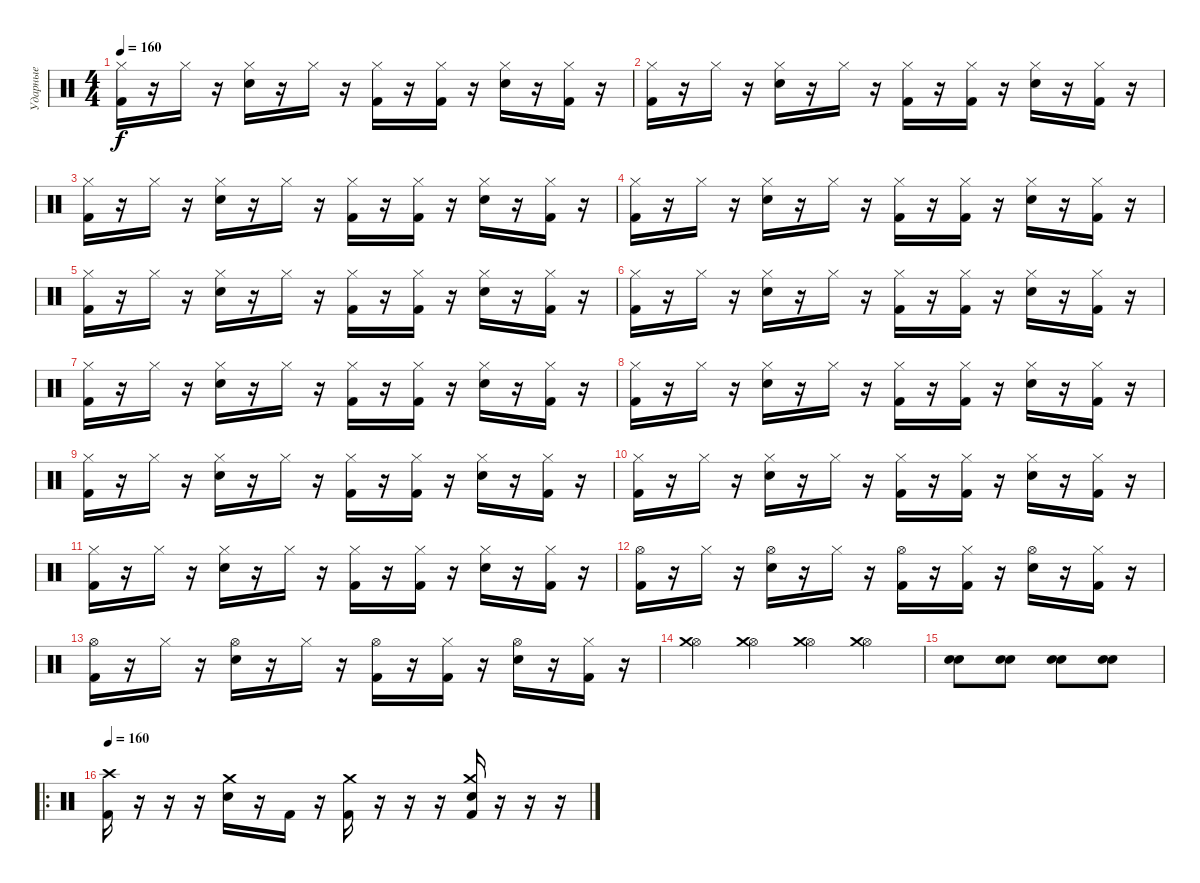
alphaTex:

\track ("Ударные" "Ударные") {instrument percussion}
\staff {score}
\articulation defaults
\ts (4 4)
\tempo 160
\clef neutral
\ks c
("Hi-Hat (closed)" "Kick (hit) 2").16{dy f} r.16 "Hi-Hat (closed)".16 r.16 ("Hi-Hat (closed)" "Snare (hit) 2").16 r.16 "Hi-Hat (closed)".16 r.16 ("Hi-Hat (closed)" "Kick (hit) 2").16 r.16 ("Hi-Hat (closed)" "Kick (hit) 2").16 r.16 ("Hi-Hat (closed)" "Snare (hit) 2").16 r.16 ("Hi-Hat (closed)" "Kick (hit) 2").16 r.16 |
("Hi-Hat (closed)" "Kick (hit) 2").16 r.16 "Hi-Hat (closed)".16 r.16 ("Hi-Hat (closed)" "Snare (hit) 2").16 r.16 "Hi-Hat (closed)".16 r.16 ("Hi-Hat (closed)" "Kick (hit) 2").16 r.16 ("Hi-Hat (closed)" "Kick (hit) 2").16 r.16 ("Hi-Hat (closed)" "Snare (hit) 2").16 r.16 ("Hi-Hat (closed)" "Kick (hit) 2").16 r.16 |
("Hi-Hat (closed)" "Kick (hit) 2").16 r.16 "Hi-Hat (closed)".16 r.16 ("Hi-Hat (closed)" "Snare (hit) 2").16 r.16 "Hi-Hat (closed)".16 r.16 ("Hi-Hat (closed)" "Kick (hit) 2").16 r.16 ("Hi-Hat (closed)" "Kick (hit) 2").16 r.16 ("Hi-Hat (closed)" "Snare (hit) 2").16 r.16 ("Hi-Hat (closed)" "Kick (hit) 2").16 r.16 |
("Hi-Hat (closed)" "Kick (hit) 2").16 r.16 "Hi-Hat (closed)".16 r.16 ("Hi-Hat (closed)" "Snare (hit) 2").16 r.16 "Hi-Hat (closed)".16 r.16 ("Hi-Hat (closed)" "Kick (hit) 2").16 r.16 ("Hi-Hat (closed)" "Kick (hit) 2").16 r.16 ("Hi-Hat (closed)" "Snare (hit) 2").16 r.16 ("Hi-Hat (closed)" "Kick (hit) 2").16 r.16 |
("Hi-Hat (closed)" "Kick (hit) 2").16 r.16 "Hi-Hat (closed)".16 r.16 ("Hi-Hat (closed)" "Snare (hit) 2").16 r.16 "Hi-Hat (closed)".16 r.16 ("Hi-Hat (closed)" "Kick (hit) 2").16 r.16 ("Hi-Hat (closed)" "Kick (hit) 2").16 r.16 ("Hi-Hat (closed)" "Snare (hit) 2").16 r.16 ("Hi-Hat (closed)" "Kick (hit) 2").16 r.16 |
("Hi-Hat (closed)" "Kick (hit) 2").16 r.16 "Hi-Hat (closed)".16 r.16 ("Hi-Hat (closed)" "Snare (hit) 2").16 r.16 "Hi-Hat (closed)".16 r.16 ("Hi-Hat (closed)" "Kick (hit) 2").16 r.16 ("Hi-Hat (closed)" "Kick (hit) 2").16 r.16 ("Hi-Hat (closed)" "Snare (hit) 2").16 r.16 ("Hi-Hat (closed)" "Kick (hit) 2").16 r.16 |
("Hi-Hat (closed)" "Kick (hit) 2").16 r.16 "Hi-Hat (closed)".16 r.16 ("Hi-Hat (closed)" "Snare (hit) 2").16 r.16 "Hi-Hat (closed)".16 r.16 ("Hi-Hat (closed)" "Kick (hit) 2").16 r.16 ("Hi-Hat (closed)" "Kick (hit) 2").16 r.16 ("Hi-Hat (closed)" "Snare (hit) 2").16 r.16 ("Hi-Hat (closed)" "Kick (hit) 2").16 r.16 |
("Hi-Hat (closed)" "Kick (hit) 2").16 r.16 "Hi-Hat (closed)".16 r.16 ("Hi-Hat (closed)" "Snare (hit) 2").16 r.16 "Hi-Hat (closed)".16 r.16 ("Hi-Hat (closed)" "Kick (hit) 2").16 r.16 ("Hi-Hat (closed)" "Kick (hit) 2").16 r.16 ("Hi-Hat (closed)" "Snare (hit) 2").16 r.16 ("Hi-Hat (closed)" "Kick (hit) 2").16 r.16 |
("Hi-Hat (closed)" "Kick (hit) 2").16 r.16 "Hi-Hat (closed)".16 r.16 ("Hi-Hat (closed)" "Snare (hit) 2").16 r.16 "Hi-Hat (closed)".16 r.16 ("Hi-Hat (closed)" "Kick (hit) 2").16 r.16 ("Hi-Hat (closed)" "Kick (hit) 2").16 r.16 ("Hi-Hat (closed)" "Snare (hit) 2").16 r.16 ("Hi-Hat (closed)" "Kick (hit) 2").16 r.16 |
("Hi-Hat (closed)" "Kick (hit) 2").16 r.16 "Hi-Hat (closed)".16 r.16 ("Hi-Hat (closed)" "Snare (hit) 2").16 r.16 "Hi-Hat (closed)".16 r.16 ("Hi-Hat (closed)" "Kick (hit) 2").16 r.16 ("Hi-Hat (closed)" "Kick (hit) 2").16 r.16 ("Hi-Hat (closed)" "Snare (hit) 2").16 r.16 ("Hi-Hat (closed)" "Kick (hit) 2").16 r.16 |
("Hi-Hat (closed)" "Kick (hit) 2").16 r.16 "Hi-Hat (closed)".16 r.16 ("Hi-Hat (closed)" "Snare (hit) 2").16 r.16 "Hi-Hat (closed)".16 r.16 ("Hi-Hat (closed)" "Kick (hit) 2").16 r.16 ("Hi-Hat (closed)" "Kick (hit) 2").16 r.16 ("Hi-Hat (closed)" "Snare (hit) 2").16 r.16 ("Hi-Hat (closed)" "Kick (hit) 2").16 r.16 |
("Hi-Hat (open)" "Kick (hit) 2").16 r.16 "Hi-Hat (closed)".16 r.16 ("Hi-Hat (open)" "Snare (hit) 2").16 r.16 "Hi-Hat (closed)".16 r.16 ("Hi-Hat (open)" "Kick (hit) 2").16 r.16 ("Hi-Hat (closed)" "Kick (hit) 2").16 r.16 ("Hi-Hat (open)" "Snare (hit) 2").16 r.16 ("Hi-Hat (closed)" "Kick (hit) 2").16 r.16 |
("Hi-Hat (open)" "Kick (hit) 2").16 r.16 "Hi-Hat (closed)".16 r.16 ("Hi-Hat (open)" "Snare (hit) 2").16 r.16 "Hi-Hat (closed)".16 r.16 ("Hi-Hat (open)" "Kick (hit) 2").16 r.16 ("Hi-Hat (closed)" "Kick (hit) 2").16 r.16 ("Hi-Hat (open)" "Snare (hit) 2").16 r.16 ("Hi-Hat (closed)" "Kick (hit) 2").16 r.16 |
("Hi-Hat (open)" "Crash medium (hit)").4{volume 16} ("Hi-Hat (open)" "Crash medium (hit)").4 ("Hi-Hat (open)" "Crash medium (hit)").4 ("Hi-Hat (open)" "Crash medium (hit)").4 |
("Snare (hit) 2" "Electric Snare (hit)").8{volume 16} ("Snare (hit) 2" "Electric Snare (hit)").8 ("Snare (hit) 2" "Electric Snare (hit)").8 ("Snare (hit) 2" "Electric Snare (hit)").8 |
\ro
\tempo 190
\tempo 160
("Crash high (hit)" "Kick (hit) 2").16{volume 13} r.16 r.16 r.16 ("Crash medium (hit)" "Electric Snare (hit)").16 r.16 "Kick (hit) 2".16 r.16 ("Crash medium (hit)" "Kick (hit) 2").16 r.16 r.16 r.16 ("Crash medium (hit)" "Electric Snare (hit)" "Kick (hit) 2").16 r.16 r.16 r.16
